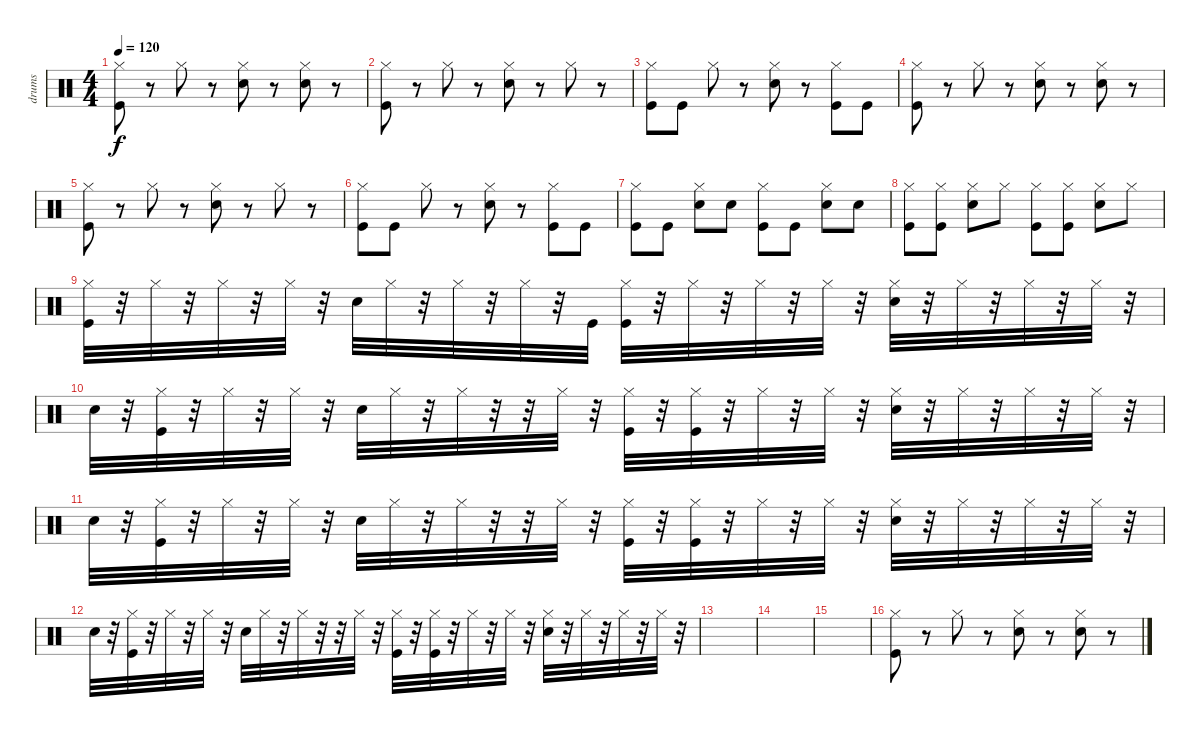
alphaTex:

\track ("drums" "drums") {instrument percussion}
\staff {score}
\articulation defaults
\ts (4 4)
\tempo 120
\clef neutral
\ks c
("Hi-Hat (closed)" "Kick (hit)").8{dy f} r.8 "Hi-Hat (closed)".8 r.8 ("Hi-Hat (closed)" "Electric Snare (hit)").8 r.8 ("Hi-Hat (closed)" "Electric Snare (hit)").8 r.8 |
("Hi-Hat (closed)" "Kick (hit)").8 r.8 "Hi-Hat (closed)".8 r.8 ("Hi-Hat (closed)" "Electric Snare (hit)").8 r.8 "Hi-Hat (closed)".8 r.8 |
("Hi-Hat (closed)" "Kick (hit)").8 "Kick (hit)".8 "Hi-Hat (closed)".8 r.8 ("Hi-Hat (closed)" "Electric Snare (hit)").8 r.8 ("Hi-Hat (closed)" "Kick (hit)").8 "Kick (hit)".8 |
("Hi-Hat (closed)" "Kick (hit)").8 r.8 "Hi-Hat (closed)".8 r.8 ("Hi-Hat (closed)" "Electric Snare (hit)").8 r.8 ("Hi-Hat (closed)" "Electric Snare (hit)").8 r.8 |
("Hi-Hat (closed)" "Kick (hit)").8 r.8 "Hi-Hat (closed)".8 r.8 ("Hi-Hat (closed)" "Electric Snare (hit)").8 r.8 "Hi-Hat (closed)".8 r.8 |
("Hi-Hat (closed)" "Kick (hit)").8 "Kick (hit)".8 "Hi-Hat (closed)".8 r.8 ("Hi-Hat (closed)" "Electric Snare (hit)").8 r.8 ("Hi-Hat (closed)" "Kick (hit)").8 "Kick (hit)".8 |
("Hi-Hat (closed)" "Kick (hit)").8 "Kick (hit)".8 ("Hi-Hat (closed)" "Electric Snare (hit)").8 "Electric Snare (hit)".8 ("Hi-Hat (closed)" "Kick (hit)").8 "Kick (hit)".8 ("Hi-Hat (closed)" "Electric Snare (hit)").8 "Electric Snare (hit)".8 |
("Hi-Hat (closed)" "Kick (hit)").8 ("Hi-Hat (closed)" "Kick (hit)").8 ("Hi-Hat (closed)" "Electric Snare (hit)").8 "Hi-Hat (closed)".8 ("Hi-Hat (closed)" "Kick (hit)").8 ("Hi-Hat (closed)" "Kick (hit)").8 ("Hi-Hat (closed)" "Electric Snare (hit)").8 "Hi-Hat (closed)".8 |
("Hi-Hat (closed)" "Kick (hit)").32 r.32 "Hi-Hat (closed)".32 r.32 "Hi-Hat (closed)".32 r.32 "Hi-Hat (closed)".32 r.32 "Electric Snare (hit)".32 "Hi-Hat (closed)".32 r.32 "Hi-Hat (closed)".32 r.32 "Hi-Hat (closed)".32 r.32 "Kick (hit)".32 ("Hi-Hat (closed)" "Kick (hit)").32 r.32 "Hi-Hat (closed)".32 r.32 "Hi-Hat (closed)".32 r.32 "Hi-Hat (closed)".32 r.32 ("Hi-Hat (closed)" "Electric Snare (hit)").32 r.32 "Hi-Hat (closed)".32 r.32 "Hi-Hat (closed)".32 r.32 "Hi-Hat (closed)".32 r.32 |
"Electric Snare (hit)".32 r.32 ("Hi-Hat (closed)" "Kick (hit)").32 r.32 "Hi-Hat (closed)".32 r.32 "Hi-Hat (closed)".32 r.32 "Electric Snare (hit)".32 "Hi-Hat (closed)".32 r.32 "Hi-Hat (closed)".32 r.32 r.32 "Hi-Hat (closed)".32 r.32 ("Hi-Hat (closed)" "Kick (hit)").32 r.32 ("Hi-Hat (closed)" "Kick (hit)").32 r.32 "Hi-Hat (closed)".32 r.32 "Hi-Hat (closed)".32 r.32 ("Hi-Hat (closed)" "Electric Snare (hit)").32 r.32 "Hi-Hat (closed)".32 r.32 "Hi-Hat (closed)".32 r.32 "Hi-Hat (closed)".32 r.32 |
"Electric Snare (hit)".32 r.32 ("Hi-Hat (closed)" "Kick (hit)").32 r.32 "Hi-Hat (closed)".32 r.32 "Hi-Hat (closed)".32 r.32 "Electric Snare (hit)".32 "Hi-Hat (closed)".32 r.32 "Hi-Hat (closed)".32 r.32 r.32 "Hi-Hat (closed)".32 r.32 ("Hi-Hat (closed)" "Kick (hit)").32 r.32 ("Hi-Hat (closed)" "Kick (hit)").32 r.32 "Hi-Hat (closed)".32 r.32 "Hi-Hat (closed)".32 r.32 ("Hi-Hat (closed)" "Electric Snare (hit)").32 r.32 "Hi-Hat (closed)".32 r.32 "Hi-Hat (closed)".32 r.32 "Hi-Hat (closed)".32 r.32 |
"Electric Snare (hit)".32 r.32 ("Hi-Hat (closed)" "Kick (hit)").32 r.32 "Hi-Hat (closed)".32 r.32 "Hi-Hat (closed)".32 r.32 "Electric Snare (hit)".32 "Hi-Hat (closed)".32 r.32 "Hi-Hat (closed)".32 r.32 r.32 "Hi-Hat (closed)".32 r.32 ("Hi-Hat (closed)" "Kick (hit)").32 r.32 ("Hi-Hat (closed)" "Kick (hit)").32 r.32 "Hi-Hat (closed)".32 r.32 "Hi-Hat (closed)".32 r.32 ("Hi-Hat (closed)" "Electric Snare (hit)").32 r.32 "Hi-Hat (closed)".32 r.32 "Hi-Hat (closed)".32 r.32 "Hi-Hat (closed)".32 r.32 |
|
|
|
("Hi-Hat (closed)" "Kick (hit)").8 r.8 "Hi-Hat (closed)".8 r.8 ("Hi-Hat (closed)" "Electric Snare (hit)").8 r.8 ("Hi-Hat (closed)" "Electric Snare (hit)").8 r.8
